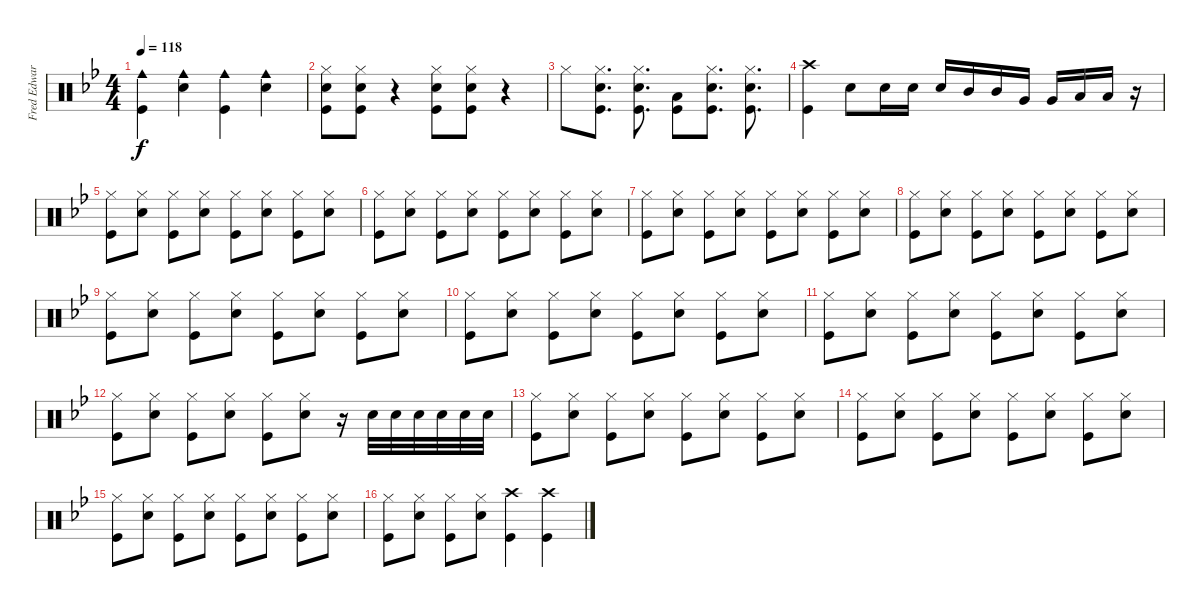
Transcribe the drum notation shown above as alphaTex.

\track ("Fred Edwards Drums" "Fred Edwar") {instrument percussion}
\staff {score}
\articulation defaults
\ts (4 4)
\tempo 118
\clef neutral
\ks gminor
("Cowbell medium (hit)" "Kick (hit)").4{dy f} ("Cowbell medium (hit)" "Snare (hit) 2").4 ("Cowbell medium (hit)" "Kick (hit)").4 ("Cowbell medium (hit)" "Snare (hit) 2").4 |
("Hi-Hat (closed)" "Snare (hit) 2" "Kick (hit)").8 ("Hi-Hat (closed)" "Snare (hit) 2" "Kick (hit)").8 r.4 ("Hi-Hat (closed)" "Snare (hit) 2" "Kick (hit)").8 ("Hi-Hat (closed)" "Snare (hit) 2" "Kick (hit)").8 r.4 |
"Hi-Hat (closed)".8 ("Hi-Hat (closed)" "Snare (hit) 2" "Kick (hit)").8{d} ("Hi-Hat (closed)" "Snare (hit) 2" "Kick (hit)").8{d} ("Low Floor Tom (hit)" "Kick (hit)").8 ("Hi-Hat (closed)" "Snare (hit) 2" "Kick (hit)").8{d} ("Hi-Hat (closed)" "Snare (hit) 2" "Kick (hit)").8{d} |
("Crash high (hit)" "Kick (hit)").4 "Snare (hit) 2".8 "Snare (hit) 2".16 "Snare (hit) 2".16 "Snare (hit) 2".16 "Mid Tom (hit)".16 "Mid Tom (hit)".16 "Very Low Tom (hit)".16 "Very Low Tom (hit)".16 "Low Tom (hit)".16 "Low Tom (hit)".16 r.16 |
("Hi-Hat (closed)" "Kick (hit)").8 ("Hi-Hat (closed)" "Snare (hit) 2").8 ("Hi-Hat (closed)" "Kick (hit)").8 ("Hi-Hat (closed)" "Snare (hit) 2").8 ("Hi-Hat (closed)" "Kick (hit)").8 ("Hi-Hat (closed)" "Snare (hit) 2").8 ("Hi-Hat (closed)" "Kick (hit)").8 ("Hi-Hat (closed)" "Snare (hit) 2").8 |
("Hi-Hat (closed)" "Kick (hit)").8 ("Hi-Hat (closed)" "Snare (hit) 2").8 ("Hi-Hat (closed)" "Kick (hit)").8 ("Hi-Hat (closed)" "Snare (hit) 2").8 ("Hi-Hat (closed)" "Kick (hit)").8 ("Hi-Hat (closed)" "Snare (hit) 2").8 ("Hi-Hat (closed)" "Kick (hit)").8 ("Hi-Hat (closed)" "Snare (hit) 2").8 |
("Hi-Hat (closed)" "Kick (hit)").8 ("Hi-Hat (closed)" "Snare (hit) 2").8 ("Hi-Hat (closed)" "Kick (hit)").8 ("Hi-Hat (closed)" "Snare (hit) 2").8 ("Hi-Hat (closed)" "Kick (hit)").8 ("Hi-Hat (closed)" "Snare (hit) 2").8 ("Hi-Hat (closed)" "Kick (hit)").8 ("Hi-Hat (closed)" "Snare (hit) 2").8 |
("Hi-Hat (closed)" "Kick (hit)").8 ("Hi-Hat (closed)" "Snare (hit) 2").8 ("Hi-Hat (closed)" "Kick (hit)").8 ("Hi-Hat (closed)" "Snare (hit) 2").8 ("Hi-Hat (closed)" "Kick (hit)").8 ("Hi-Hat (closed)" "Snare (hit) 2").8 ("Hi-Hat (closed)" "Kick (hit)").8 ("Hi-Hat (closed)" "Snare (hit) 2").8 |
("Hi-Hat (closed)" "Kick (hit)").8 ("Hi-Hat (closed)" "Snare (hit) 2").8 ("Hi-Hat (closed)" "Kick (hit)").8 ("Hi-Hat (closed)" "Snare (hit) 2").8 ("Hi-Hat (closed)" "Kick (hit)").8 ("Hi-Hat (closed)" "Snare (hit) 2").8 ("Hi-Hat (closed)" "Kick (hit)").8 ("Hi-Hat (closed)" "Snare (hit) 2").8 |
("Hi-Hat (closed)" "Kick (hit)").8 ("Hi-Hat (closed)" "Snare (hit) 2").8 ("Hi-Hat (closed)" "Kick (hit)").8 ("Hi-Hat (closed)" "Snare (hit) 2").8 ("Hi-Hat (closed)" "Kick (hit)").8 ("Hi-Hat (closed)" "Snare (hit) 2").8 ("Hi-Hat (closed)" "Kick (hit)").8 ("Hi-Hat (closed)" "Snare (hit) 2").8 |
("Hi-Hat (closed)" "Kick (hit)").8 ("Hi-Hat (closed)" "Snare (hit) 2").8 ("Hi-Hat (closed)" "Kick (hit)").8 ("Hi-Hat (closed)" "Snare (hit) 2").8 ("Hi-Hat (closed)" "Kick (hit)").8 ("Hi-Hat (closed)" "Snare (hit) 2").8 ("Hi-Hat (closed)" "Kick (hit)").8 ("Hi-Hat (closed)" "Snare (hit) 2").8 |
("Hi-Hat (closed)" "Kick (hit)").8 ("Hi-Hat (closed)" "Snare (hit) 2").8 ("Hi-Hat (closed)" "Kick (hit)").8 ("Hi-Hat (closed)" "Snare (hit) 2").8 ("Hi-Hat (closed)" "Kick (hit)").8 ("Hi-Hat (closed)" "Snare (hit) 2").8 r.16 "Snare (hit) 2".32 "Snare (hit) 2".32 "Snare (hit) 2".32 "Snare (hit) 2".32 "Snare (hit) 2".32 "Snare (hit) 2".32 |
("Hi-Hat (closed)" "Kick (hit)").8 ("Hi-Hat (closed)" "Snare (hit) 2").8 ("Hi-Hat (closed)" "Kick (hit)").8 ("Hi-Hat (closed)" "Snare (hit) 2").8 ("Hi-Hat (closed)" "Kick (hit)").8 ("Hi-Hat (closed)" "Snare (hit) 2").8 ("Hi-Hat (closed)" "Kick (hit)").8 ("Hi-Hat (closed)" "Snare (hit) 2").8 |
("Hi-Hat (closed)" "Kick (hit)").8 ("Hi-Hat (closed)" "Snare (hit) 2").8 ("Hi-Hat (closed)" "Kick (hit)").8 ("Hi-Hat (closed)" "Snare (hit) 2").8 ("Hi-Hat (closed)" "Kick (hit)").8 ("Hi-Hat (closed)" "Snare (hit) 2").8 ("Hi-Hat (closed)" "Kick (hit)").8 ("Hi-Hat (closed)" "Snare (hit) 2").8 |
("Hi-Hat (closed)" "Kick (hit)").8 ("Hi-Hat (closed)" "Snare (hit) 2").8 ("Hi-Hat (closed)" "Kick (hit)").8 ("Hi-Hat (closed)" "Snare (hit) 2").8 ("Hi-Hat (closed)" "Kick (hit)").8 ("Hi-Hat (closed)" "Snare (hit) 2").8 ("Hi-Hat (closed)" "Kick (hit)").8 ("Hi-Hat (closed)" "Snare (hit) 2").8 |
("Hi-Hat (closed)" "Kick (hit)").8 ("Hi-Hat (closed)" "Snare (hit) 2").8 ("Hi-Hat (closed)" "Kick (hit)").8 ("Hi-Hat (closed)" "Snare (hit) 2").8 ("Crash high (hit)" "Kick (hit)").4 ("Crash high (hit)" "Kick (hit)").4
